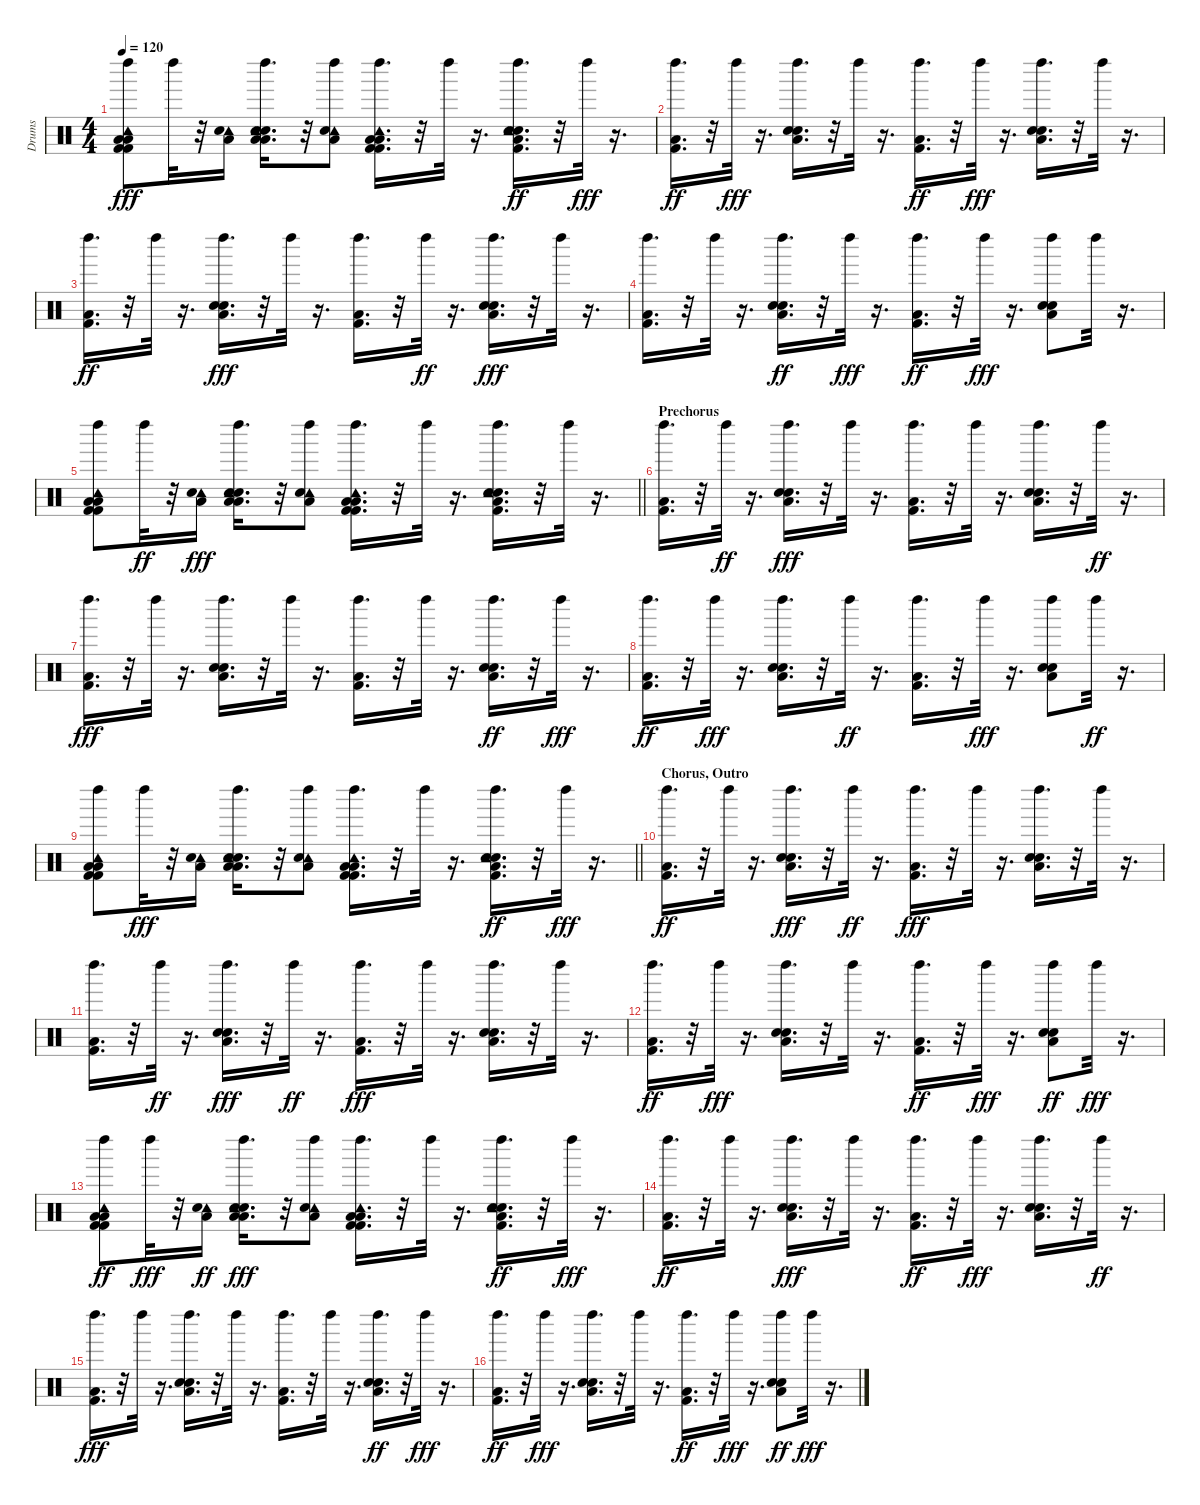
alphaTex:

\track ("Drums" "Drums") {instrument percussion}
\staff {score}
\articulation defaults
\ts (4 4)
\tempo 120
\clef neutral
\ks c
("Left Maraca (hit)" "Low Floor Tom (hit)" "Kick (hit) 2" "Tambourine (hit)" "Low Floor Tom (hit)" "Kick (hit) 2").8{dy fff} "Left Maraca (hit)".32 r.32 ("Tambourine (hit)" "Low Floor Tom (hit)" "Snare (hit) 2").16 ("Left Maraca (hit)" "Electric Snare (hit)" "Low Floor Tom (hit)" "Snare (hit) 2" "Tambourine (hit)" "Low Floor Tom (hit)").16{d} r.32 ("Left Maraca (hit)" "Tambourine (hit)" "Low Floor Tom (hit)" "Snare (hit) 2").8 ("Left Maraca (hit)" "Low Floor Tom (hit)" "Kick (hit) 2" "Tambourine (hit)" "Low Floor Tom (hit)" "Kick (hit) 2").16{d} r.32 "Left Maraca (hit)".32 r.16{d} ("Left Maraca (hit)" "Electric Snare (hit)" "Low Floor Tom (hit)" "Snare (hit) 2" "Tambourine (hit)" "Kick (hit) 2").16{d dy ff} r.32 "Left Maraca (hit)".32{dy fff} r.16{d} |
("Left Maraca (hit)" "Low Floor Tom (hit)" "Kick (hit) 2").16{d dy ff} r.32 "Left Maraca (hit)".32{dy fff} r.16{d} ("Left Maraca (hit)" "Electric Snare (hit)" "Low Floor Tom (hit)" "Snare (hit) 2").16{d} r.32 "Left Maraca (hit)".32 r.16{d} ("Left Maraca (hit)" "Low Floor Tom (hit)" "Kick (hit) 2").16{d dy ff} r.32 "Left Maraca (hit)".32{dy fff} r.16{d} ("Left Maraca (hit)" "Electric Snare (hit)" "Low Floor Tom (hit)" "Snare (hit) 2").16{d} r.32 "Left Maraca (hit)".32 r.16{d} |
("Left Maraca (hit)" "Low Floor Tom (hit)" "Kick (hit) 2").16{d dy ff} r.32 "Left Maraca (hit)".32 r.16{d} ("Left Maraca (hit)" "Electric Snare (hit)" "Low Floor Tom (hit)" "Snare (hit) 2").16{d dy fff} r.32 "Left Maraca (hit)".32 r.16{d} ("Left Maraca (hit)" "Low Floor Tom (hit)" "Kick (hit) 2").16{d} r.32 "Left Maraca (hit)".32{dy ff} r.16{d} ("Left Maraca (hit)" "Electric Snare (hit)" "Low Floor Tom (hit)" "Snare (hit) 2").16{d dy fff} r.32 "Left Maraca (hit)".32 r.16{d} |
("Left Maraca (hit)" "Low Floor Tom (hit)" "Kick (hit) 2").16{d} r.32 "Left Maraca (hit)".32 r.16{d} ("Left Maraca (hit)" "Electric Snare (hit)" "Low Floor Tom (hit)" "Snare (hit) 2").16{d dy ff} r.32 "Left Maraca (hit)".32{dy fff} r.16{d} ("Left Maraca (hit)" "Low Floor Tom (hit)" "Kick (hit) 2").16{d dy ff} r.32 "Left Maraca (hit)".32{dy fff} r.16{d} ("Left Maraca (hit)" "Electric Snare (hit)" "Low Floor Tom (hit)" "Snare (hit) 2").8 "Left Maraca (hit)".32 r.16{d} |
\barLineRight lightlight
("Left Maraca (hit)" "Low Floor Tom (hit)" "Kick (hit) 2" "Tambourine (hit)" "Low Floor Tom (hit)" "Kick (hit) 2").8 "Left Maraca (hit)".32{dy ff} r.32 ("Tambourine (hit)" "Low Floor Tom (hit)" "Snare (hit) 2").16{dy fff} ("Left Maraca (hit)" "Electric Snare (hit)" "Low Floor Tom (hit)" "Snare (hit) 2" "Tambourine (hit)" "Low Floor Tom (hit)").16{d} r.32 ("Left Maraca (hit)" "Tambourine (hit)" "Low Floor Tom (hit)" "Snare (hit) 2").8 ("Left Maraca (hit)" "Low Floor Tom (hit)" "Kick (hit) 2" "Tambourine (hit)" "Low Floor Tom (hit)" "Kick (hit) 2").16{d} r.32 "Left Maraca (hit)".32 r.16{d} ("Left Maraca (hit)" "Electric Snare (hit)" "Low Floor Tom (hit)" "Snare (hit) 2" "Tambourine (hit)" "Kick (hit) 2").16{d} r.32 "Left Maraca (hit)".32 r.16{d} |
\section ("" "Prechorus")
("Left Maraca (hit)" "Low Floor Tom (hit)" "Kick (hit) 2").16{d} r.32 "Left Maraca (hit)".32{dy ff} r.16{d} ("Left Maraca (hit)" "Electric Snare (hit)" "Low Floor Tom (hit)" "Snare (hit) 2").16{d dy fff} r.32 "Left Maraca (hit)".32 r.16{d} ("Left Maraca (hit)" "Low Floor Tom (hit)" "Kick (hit) 2").16{d} r.32 "Left Maraca (hit)".32 r.16{d} ("Left Maraca (hit)" "Electric Snare (hit)" "Low Floor Tom (hit)" "Snare (hit) 2").16{d} r.32 "Left Maraca (hit)".32{dy ff} r.16{d} |
("Left Maraca (hit)" "Low Floor Tom (hit)" "Kick (hit) 2").16{d dy fff} r.32 "Left Maraca (hit)".32 r.16{d} ("Left Maraca (hit)" "Electric Snare (hit)" "Low Floor Tom (hit)" "Snare (hit) 2").16{d} r.32 "Left Maraca (hit)".32 r.16{d} ("Left Maraca (hit)" "Low Floor Tom (hit)" "Kick (hit) 2").16{d} r.32 "Left Maraca (hit)".32 r.16{d} ("Left Maraca (hit)" "Electric Snare (hit)" "Low Floor Tom (hit)" "Snare (hit) 2").16{d dy ff} r.32 "Left Maraca (hit)".32{dy fff} r.16{d} |
("Left Maraca (hit)" "Low Floor Tom (hit)" "Kick (hit) 2").16{d dy ff} r.32 "Left Maraca (hit)".32{dy fff} r.16{d} ("Left Maraca (hit)" "Electric Snare (hit)" "Low Floor Tom (hit)" "Snare (hit) 2").16{d} r.32 "Left Maraca (hit)".32{dy ff} r.16{d} ("Left Maraca (hit)" "Low Floor Tom (hit)" "Kick (hit) 2").16{d} r.32 "Left Maraca (hit)".32{dy fff} r.16{d} ("Left Maraca (hit)" "Electric Snare (hit)" "Low Floor Tom (hit)" "Snare (hit) 2").8 "Left Maraca (hit)".32{dy ff} r.16{d} |
\barLineRight lightlight
("Left Maraca (hit)" "Low Floor Tom (hit)" "Kick (hit) 2" "Tambourine (hit)" "Low Floor Tom (hit)" "Kick (hit) 2").8 "Left Maraca (hit)".32{dy fff} r.32 ("Tambourine (hit)" "Low Floor Tom (hit)" "Snare (hit) 2").16 ("Left Maraca (hit)" "Electric Snare (hit)" "Low Floor Tom (hit)" "Snare (hit) 2" "Tambourine (hit)" "Low Floor Tom (hit)").16{d} r.32 ("Left Maraca (hit)" "Tambourine (hit)" "Low Floor Tom (hit)" "Snare (hit) 2").8 ("Left Maraca (hit)" "Low Floor Tom (hit)" "Kick (hit) 2" "Tambourine (hit)" "Low Floor Tom (hit)" "Kick (hit) 2").16{d} r.32 "Left Maraca (hit)".32 r.16{d} ("Left Maraca (hit)" "Electric Snare (hit)" "Low Floor Tom (hit)" "Snare (hit) 2" "Tambourine (hit)" "Kick (hit) 2").16{d dy ff} r.32 "Left Maraca (hit)".32{dy fff} r.16{d} |
\section ("" "Chorus, Outro")
("Left Maraca (hit)" "Low Floor Tom (hit)" "Kick (hit) 2").16{d dy ff} r.32 "Left Maraca (hit)".32 r.16{d} ("Left Maraca (hit)" "Electric Snare (hit)" "Low Floor Tom (hit)" "Snare (hit) 2").16{d dy fff} r.32 "Left Maraca (hit)".32{dy ff} r.16{d} ("Left Maraca (hit)" "Low Floor Tom (hit)" "Kick (hit) 2").16{d dy fff} r.32 "Left Maraca (hit)".32 r.16{d} ("Left Maraca (hit)" "Electric Snare (hit)" "Low Floor Tom (hit)" "Snare (hit) 2").16{d} r.32 "Left Maraca (hit)".32 r.16{d} |
("Left Maraca (hit)" "Low Floor Tom (hit)" "Kick (hit) 2").16{d} r.32 "Left Maraca (hit)".32{dy ff} r.16{d} ("Left Maraca (hit)" "Electric Snare (hit)" "Low Floor Tom (hit)" "Snare (hit) 2").16{d dy fff} r.32 "Left Maraca (hit)".32{dy ff} r.16{d} ("Left Maraca (hit)" "Low Floor Tom (hit)" "Kick (hit) 2").16{d dy fff} r.32 "Left Maraca (hit)".32 r.16{d} ("Left Maraca (hit)" "Electric Snare (hit)" "Low Floor Tom (hit)" "Snare (hit) 2").16{d} r.32 "Left Maraca (hit)".32 r.16{d} |
("Left Maraca (hit)" "Low Floor Tom (hit)" "Kick (hit) 2").16{d dy ff} r.32 "Left Maraca (hit)".32{dy fff} r.16{d} ("Left Maraca (hit)" "Electric Snare (hit)" "Low Floor Tom (hit)" "Snare (hit) 2").16{d} r.32 "Left Maraca (hit)".32 r.16{d} ("Left Maraca (hit)" "Low Floor Tom (hit)" "Kick (hit) 2").16{d dy ff} r.32 "Left Maraca (hit)".32{dy fff} r.16{d} ("Left Maraca (hit)" "Electric Snare (hit)" "Low Floor Tom (hit)" "Snare (hit) 2").8{dy ff} "Left Maraca (hit)".32{dy fff} r.16{d} |
("Left Maraca (hit)" "Low Floor Tom (hit)" "Kick (hit) 2" "Tambourine (hit)" "Low Floor Tom (hit)" "Kick (hit) 2").8{dy ff} "Left Maraca (hit)".32{dy fff} r.32 ("Tambourine (hit)" "Low Floor Tom (hit)" "Snare (hit) 2").16{dy ff} ("Left Maraca (hit)" "Electric Snare (hit)" "Low Floor Tom (hit)" "Snare (hit) 2" "Tambourine (hit)" "Low Floor Tom (hit)").16{d dy fff} r.32 ("Left Maraca (hit)" "Tambourine (hit)" "Low Floor Tom (hit)" "Snare (hit) 2").8 ("Left Maraca (hit)" "Low Floor Tom (hit)" "Kick (hit) 2" "Tambourine (hit)" "Low Floor Tom (hit)" "Kick (hit) 2").16{d} r.32 "Left Maraca (hit)".32 r.16{d} ("Left Maraca (hit)" "Electric Snare (hit)" "Low Floor Tom (hit)" "Snare (hit) 2" "Tambourine (hit)" "Kick (hit) 2").16{d dy ff} r.32 "Left Maraca (hit)".32{dy fff} r.16{d} |
("Left Maraca (hit)" "Low Floor Tom (hit)" "Kick (hit) 2").16{d dy ff} r.32 "Left Maraca (hit)".32 r.16{d} ("Left Maraca (hit)" "Electric Snare (hit)" "Low Floor Tom (hit)" "Snare (hit) 2").16{d dy fff} r.32 "Left Maraca (hit)".32 r.16{d} ("Left Maraca (hit)" "Low Floor Tom (hit)" "Kick (hit) 2").16{d dy ff} r.32 "Left Maraca (hit)".32{dy fff} r.16{d} ("Left Maraca (hit)" "Electric Snare (hit)" "Low Floor Tom (hit)" "Snare (hit) 2").16{d} r.32 "Left Maraca (hit)".32{dy ff} r.16{d} |
("Left Maraca (hit)" "Low Floor Tom (hit)" "Kick (hit) 2").16{d dy fff} r.32 "Left Maraca (hit)".32 r.16{d} ("Left Maraca (hit)" "Electric Snare (hit)" "Low Floor Tom (hit)" "Snare (hit) 2").16{d} r.32 "Left Maraca (hit)".32 r.16{d} ("Left Maraca (hit)" "Low Floor Tom (hit)" "Kick (hit) 2").16{d} r.32 "Left Maraca (hit)".32 r.16{d} ("Left Maraca (hit)" "Electric Snare (hit)" "Low Floor Tom (hit)" "Snare (hit) 2").16{d dy ff} r.32 "Left Maraca (hit)".32{dy fff} r.16{d} |
("Left Maraca (hit)" "Low Floor Tom (hit)" "Kick (hit) 2").16{d dy ff} r.32 "Left Maraca (hit)".32{dy fff} r.16{d} ("Left Maraca (hit)" "Electric Snare (hit)" "Low Floor Tom (hit)" "Snare (hit) 2").16{d} r.32 "Left Maraca (hit)".32 r.16{d} ("Left Maraca (hit)" "Low Floor Tom (hit)" "Kick (hit) 2").16{d dy ff} r.32 "Left Maraca (hit)".32{dy fff} r.16{d} ("Left Maraca (hit)" "Electric Snare (hit)" "Low Floor Tom (hit)" "Snare (hit) 2").8{dy ff} "Left Maraca (hit)".32{dy fff} r.16{d}
